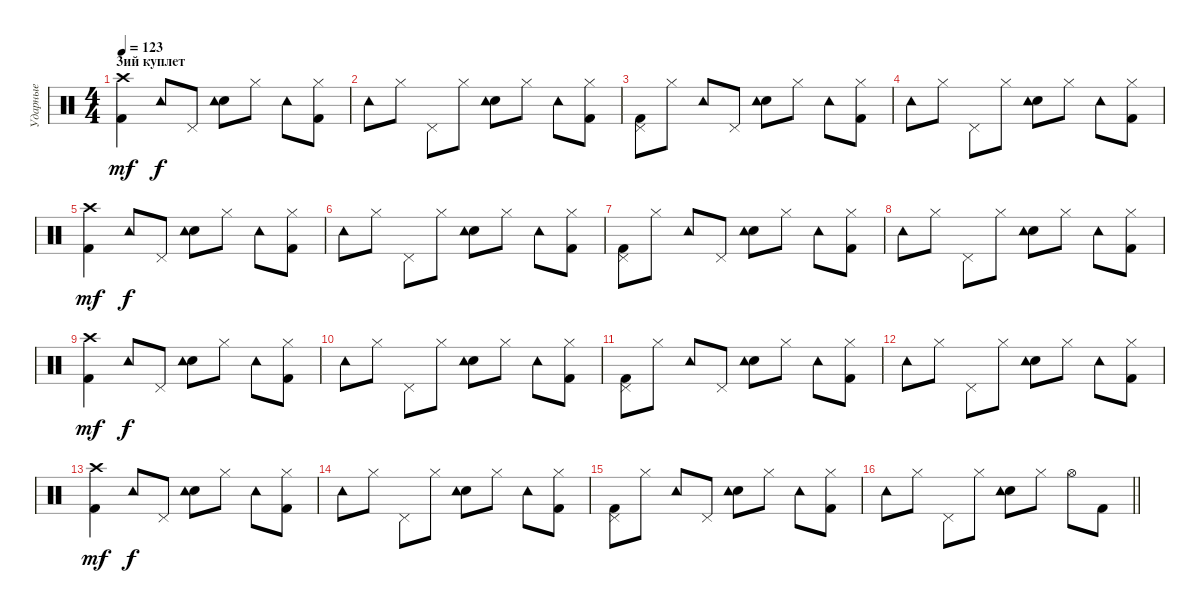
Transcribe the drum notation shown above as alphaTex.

\track ("Ударные" "Ударные") {instrument percussion}
\staff {score}
\articulation defaults
\ts (4 4)
\section ("" "3ий куплет")
\tempo 123
\clef neutral
\ks c
("Kick (hit) 2" "Crash high (hit)").4{dy mf} "Tambourine (hit)".8{dy f} "Pedal Hi-Hat (hit)".8 ("Electric Snare (hit)" "Tambourine (hit)").8 "Hi-Hat (closed)".8 "Tambourine (hit)".8 ("Kick (hit) 2" "Hi-Hat (closed)").8 |
"Tambourine (hit)".8 "Hi-Hat (closed)".8 "Pedal Hi-Hat (hit)".8 "Hi-Hat (closed)".8 ("Snare (hit) 2" "Tambourine (hit)").8 "Hi-Hat (closed)".8 "Tambourine (hit)".8 ("Kick (hit) 2" "Hi-Hat (closed)").8 |
("Kick (hit) 2" "Pedal Hi-Hat (hit)").8 "Hi-Hat (closed)".8 "Tambourine (hit)".8 "Pedal Hi-Hat (hit)".8 ("Electric Snare (hit)" "Tambourine (hit)").8 "Hi-Hat (closed)".8 "Tambourine (hit)".8 ("Kick (hit) 2" "Hi-Hat (closed)").8 |
"Tambourine (hit)".8 "Hi-Hat (closed)".8 "Pedal Hi-Hat (hit)".8 "Hi-Hat (closed)".8 ("Snare (hit) 2" "Tambourine (hit)").8 "Hi-Hat (closed)".8 "Tambourine (hit)".8 ("Kick (hit) 2" "Hi-Hat (closed)").8 |
("Kick (hit) 2" "Crash high (hit)").4{dy mf} "Tambourine (hit)".8{dy f} "Pedal Hi-Hat (hit)".8 ("Electric Snare (hit)" "Tambourine (hit)").8 "Hi-Hat (closed)".8 "Tambourine (hit)".8 ("Kick (hit) 2" "Hi-Hat (closed)").8 |
"Tambourine (hit)".8 "Hi-Hat (closed)".8 "Pedal Hi-Hat (hit)".8 "Hi-Hat (closed)".8 ("Snare (hit) 2" "Tambourine (hit)").8 "Hi-Hat (closed)".8 "Tambourine (hit)".8 ("Kick (hit) 2" "Hi-Hat (closed)").8 |
("Kick (hit) 2" "Pedal Hi-Hat (hit)").8 "Hi-Hat (closed)".8 "Tambourine (hit)".8 "Pedal Hi-Hat (hit)".8 ("Electric Snare (hit)" "Tambourine (hit)").8 "Hi-Hat (closed)".8 "Tambourine (hit)".8 ("Kick (hit) 2" "Hi-Hat (closed)").8 |
"Tambourine (hit)".8 "Hi-Hat (closed)".8 "Pedal Hi-Hat (hit)".8 "Hi-Hat (closed)".8 ("Snare (hit) 2" "Tambourine (hit)").8 "Hi-Hat (closed)".8 "Tambourine (hit)".8 ("Kick (hit) 2" "Hi-Hat (closed)").8 |
("Kick (hit) 2" "Crash high (hit)").4{dy mf} "Tambourine (hit)".8{dy f} "Pedal Hi-Hat (hit)".8 ("Electric Snare (hit)" "Tambourine (hit)").8 "Hi-Hat (closed)".8 "Tambourine (hit)".8 ("Kick (hit) 2" "Hi-Hat (closed)").8 |
"Tambourine (hit)".8 "Hi-Hat (closed)".8 "Pedal Hi-Hat (hit)".8 "Hi-Hat (closed)".8 ("Snare (hit) 2" "Tambourine (hit)").8 "Hi-Hat (closed)".8 "Tambourine (hit)".8 ("Kick (hit) 2" "Hi-Hat (closed)").8 |
("Kick (hit) 2" "Pedal Hi-Hat (hit)").8 "Hi-Hat (closed)".8 "Tambourine (hit)".8 "Pedal Hi-Hat (hit)".8 ("Electric Snare (hit)" "Tambourine (hit)").8 "Hi-Hat (closed)".8 "Tambourine (hit)".8 ("Kick (hit) 2" "Hi-Hat (closed)").8 |
"Tambourine (hit)".8 "Hi-Hat (closed)".8 "Pedal Hi-Hat (hit)".8 "Hi-Hat (closed)".8 ("Snare (hit) 2" "Tambourine (hit)").8 "Hi-Hat (closed)".8 "Tambourine (hit)".8 ("Kick (hit) 2" "Hi-Hat (closed)").8 |
("Kick (hit) 2" "Crash high (hit)").4{dy mf} "Tambourine (hit)".8{dy f} "Pedal Hi-Hat (hit)".8 ("Electric Snare (hit)" "Tambourine (hit)").8 "Hi-Hat (closed)".8 "Tambourine (hit)".8 ("Kick (hit) 2" "Hi-Hat (closed)").8 |
"Tambourine (hit)".8 "Hi-Hat (closed)".8 "Pedal Hi-Hat (hit)".8 "Hi-Hat (closed)".8 ("Snare (hit) 2" "Tambourine (hit)").8 "Hi-Hat (closed)".8 "Tambourine (hit)".8 ("Kick (hit) 2" "Hi-Hat (closed)").8 |
("Kick (hit) 2" "Pedal Hi-Hat (hit)").8 "Hi-Hat (closed)".8 "Tambourine (hit)".8 "Pedal Hi-Hat (hit)".8 ("Electric Snare (hit)" "Tambourine (hit)").8 "Hi-Hat (closed)".8 "Tambourine (hit)".8 ("Kick (hit) 2" "Hi-Hat (closed)").8 |
\barLineRight lightlight "Tambourine (hit)".8 "Hi-Hat (closed)".8 "Pedal Hi-Hat (hit)".8 "Hi-Hat (closed)".8
("Snare (hit) 2" "Tambourine (hit)").8 "Hi-Hat (closed)".8 "Hi-Hat (open)".8 "Kick (hit) 2".8
